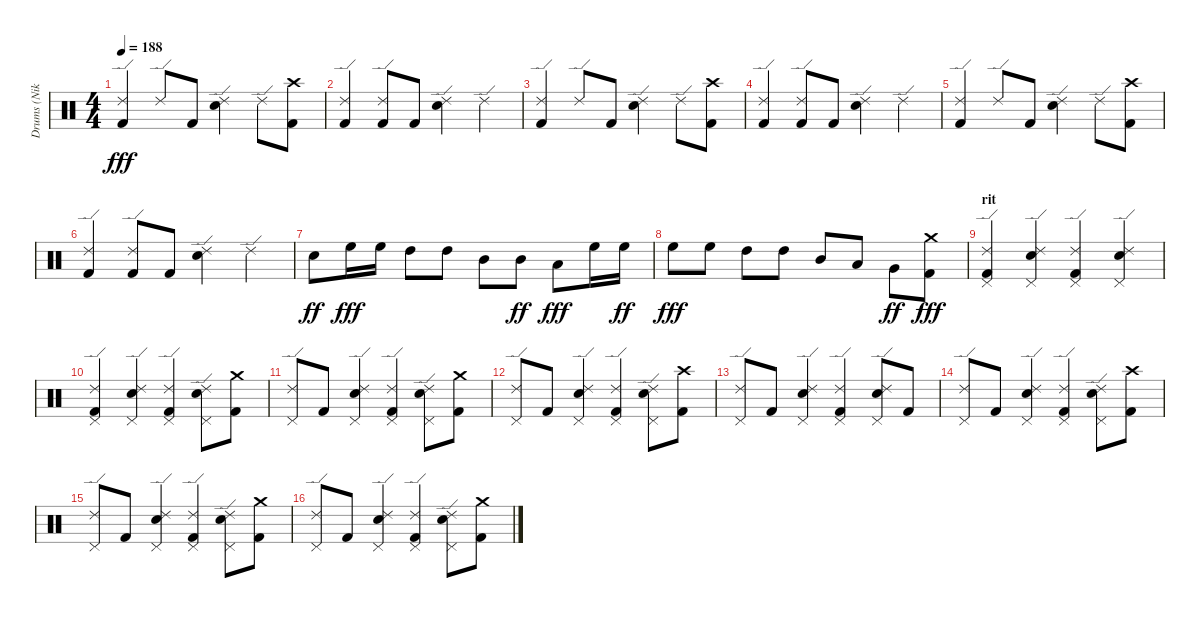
\track ("Drums (Niko)" "Drums (Nik") {instrument percussion}
\staff {score}
\articulation defaults
\ts (4 4)
\tempo 188
\clef neutral
\ks c
("Ride (edge) 2" "Kick (hit) 2").4{dy fff} "Ride (edge) 2".8 "Kick (hit) 2".8 ("Ride (edge) 2" "Electric Snare (hit)").4 "Ride (edge) 2".8 ("Crash high (hit)" "Kick (hit) 2").8 |
("Ride (edge) 2" "Kick (hit) 2").4 ("Ride (edge) 2" "Kick (hit) 2").8 "Kick (hit) 2".8 ("Ride (edge) 2" "Electric Snare (hit)").4 "Ride (edge) 2".4 |
("Ride (edge) 2" "Kick (hit) 2").4 "Ride (edge) 2".8 "Kick (hit) 2".8 ("Ride (edge) 2" "Electric Snare (hit)").4 "Ride (edge) 2".8 ("Crash high (hit)" "Kick (hit) 2").8 |
("Ride (edge) 2" "Kick (hit) 2").4 ("Ride (edge) 2" "Kick (hit) 2").8 "Kick (hit) 2".8 ("Ride (edge) 2" "Electric Snare (hit)").4 "Ride (edge) 2".4 |
("Ride (edge) 2" "Kick (hit) 2").4 "Ride (edge) 2".8 "Kick (hit) 2".8 ("Ride (edge) 2" "Electric Snare (hit)").4 "Ride (edge) 2".8 ("Crash high (hit)" "Kick (hit) 2").8 |
("Ride (edge) 2" "Kick (hit) 2").4 ("Ride (edge) 2" "Kick (hit) 2").8 "Kick (hit) 2".8 ("Ride (edge) 2" "Electric Snare (hit)").4 "Ride (edge) 2".4 |
"Electric Snare (hit)".8{dy ff} "High Floor Tom (hit)".16{dy fff} "High Floor Tom (hit)".16 "High Tom (hit)".8 "High Tom (hit)".8 "Mid Tom (hit)".8 "Mid Tom (hit)".8{dy ff} "Low Tom (hit)".8{dy fff} "High Floor Tom (hit)".16 "High Floor Tom (hit)".16{dy ff} |
"High Floor Tom (hit)".8{dy fff} "High Floor Tom (hit)".8 "High Tom (hit)".8 "High Tom (hit)".8 "Mid Tom (hit)".8 "Low Tom (hit)".8 "Very Low Tom (hit)".8{dy ff} ("Crash medium (hit)" "Kick (hit) 2").8{dy fff} |
\section ("" "rit")
("Ride (edge) 2" "Pedal Hi-Hat (hit)" "Kick (hit) 2").4 ("Ride (edge) 2" "Electric Snare (hit)" "Pedal Hi-Hat (hit)").4 ("Ride (edge) 2" "Pedal Hi-Hat (hit)" "Kick (hit) 2").4 ("Ride (edge) 2" "Electric Snare (hit)" "Pedal Hi-Hat (hit)").4 |
("Ride (edge) 2" "Pedal Hi-Hat (hit)" "Kick (hit) 2").4 ("Ride (edge) 2" "Electric Snare (hit)" "Pedal Hi-Hat (hit)").4 ("Ride (edge) 2" "Pedal Hi-Hat (hit)" "Kick (hit) 2").4 ("Ride (edge) 2" "Electric Snare (hit)" "Pedal Hi-Hat (hit)").8 ("Crash medium (hit)" "Kick (hit) 2").8 |
("Ride (edge) 2" "Pedal Hi-Hat (hit)").8 "Kick (hit) 2".8 ("Ride (edge) 2" "Electric Snare (hit)" "Pedal Hi-Hat (hit)").4 ("Ride (edge) 2" "Pedal Hi-Hat (hit)" "Kick (hit) 2").4 ("Ride (edge) 2" "Electric Snare (hit)" "Pedal Hi-Hat (hit)").8 ("Crash medium (hit)" "Kick (hit) 2").8 |
("Ride (edge) 2" "Pedal Hi-Hat (hit)").8 "Kick (hit) 2".8 ("Ride (edge) 2" "Electric Snare (hit)" "Pedal Hi-Hat (hit)").4 ("Ride (edge) 2" "Pedal Hi-Hat (hit)" "Kick (hit) 2").4 ("Ride (edge) 2" "Electric Snare (hit)" "Pedal Hi-Hat (hit)").8 ("Crash high (hit)" "Kick (hit) 2").8 |
("Ride (edge) 2" "Pedal Hi-Hat (hit)").8 "Kick (hit) 2".8 ("Ride (edge) 2" "Electric Snare (hit)" "Pedal Hi-Hat (hit)").4 ("Ride (edge) 2" "Pedal Hi-Hat (hit)" "Kick (hit) 2").4 ("Ride (edge) 2" "Electric Snare (hit)" "Pedal Hi-Hat (hit)").8 "Kick (hit) 2".8 |
("Ride (edge) 2" "Pedal Hi-Hat (hit)").8 "Kick (hit) 2".8 ("Ride (edge) 2" "Electric Snare (hit)" "Pedal Hi-Hat (hit)").4 ("Ride (edge) 2" "Pedal Hi-Hat (hit)" "Kick (hit) 2").4 ("Ride (edge) 2" "Electric Snare (hit)" "Pedal Hi-Hat (hit)").8 ("Crash high (hit)" "Kick (hit) 2").8 |
("Ride (edge) 2" "Pedal Hi-Hat (hit)").8 "Kick (hit) 2".8 ("Ride (edge) 2" "Electric Snare (hit)" "Pedal Hi-Hat (hit)").4 ("Ride (edge) 2" "Pedal Hi-Hat (hit)" "Kick (hit) 2").4 ("Ride (edge) 2" "Electric Snare (hit)" "Pedal Hi-Hat (hit)").8 ("Crash medium (hit)" "Kick (hit) 2").8 |
("Ride (edge) 2" "Pedal Hi-Hat (hit)").8 "Kick (hit) 2".8 ("Ride (edge) 2" "Electric Snare (hit)" "Pedal Hi-Hat (hit)").4 ("Ride (edge) 2" "Pedal Hi-Hat (hit)" "Kick (hit) 2").4 ("Ride (edge) 2" "Electric Snare (hit)" "Pedal Hi-Hat (hit)").8 ("Crash medium (hit)" "Kick (hit) 2").8
